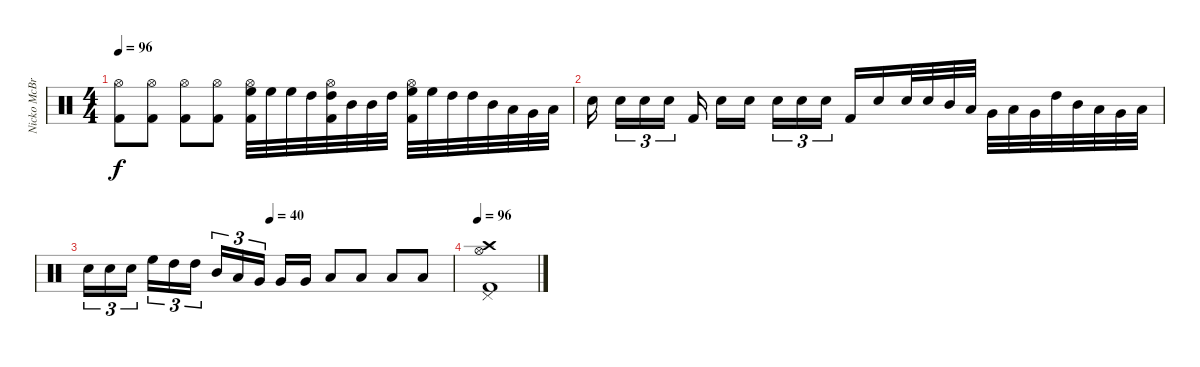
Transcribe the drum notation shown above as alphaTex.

\track ("Nicko McBrain" "Nicko McBr") {instrument percussion}
\staff {score}
\articulation defaults
\ts (4 4)
\tempo 96
\clef neutral
\ks c
("Kick (hit) 2" "Hi-Hat (open)").8{dy f} ("Kick (hit) 2" "Hi-Hat (open)").8 ("Kick (hit) 2" "Hi-Hat (open)").8 ("Kick (hit) 2" "Hi-Hat (open)").8 ("High Floor Tom (hit)" "Kick (hit) 2" "Hi-Hat (open)").32 "High Floor Tom (hit)".32 "High Floor Tom (hit)".32 "High Tom (hit)".32 ("High Tom (hit)" "Kick (hit) 2" "Hi-Hat (open)").32 "Mid Tom (hit)".32 "Mid Tom (hit)".32 "High Tom (hit)".32 ("High Floor Tom (hit)" "Kick (hit) 2" "Hi-Hat (open)").32 "High Floor Tom (hit)".32 "High Tom (hit)".32 "High Tom (hit)".32 "Mid Tom (hit)".32 "Low Tom (hit)".32 "Very Low Tom (hit)".32 "Low Floor Tom (hit)".32 |
"Snare (hit) 2".16{beam splitsecondary} "Snare (hit) 2".16{tu (3 2)} "Snare (hit) 2".16{tu (3 2)} "Snare (hit) 2".16{tu (3 2) beam splitsecondary} "Kick (hit) 2".16 "Snare (hit) 2".16 "Snare (hit) 2".16{beam splitsecondary} "Snare (hit) 2".16{tu (3 2)} "Snare (hit) 2".16{tu (3 2)} "Snare (hit) 2".16{tu (3 2)} "Kick (hit) 2".16 "Snare (hit) 2".16 "Snare (hit) 2".32 "Snare (hit) 2".32 "Mid Tom (hit)".32 "Low Tom (hit)".32 "Very Low Tom (hit)".32 "Low Floor Tom (hit)".32 "Very Low Tom (hit)".32 "High Tom (hit)".32 "Mid Tom (hit)".32 "Low Tom (hit)".32 "Very Low Tom (hit)".32 "Low Floor Tom (hit)".32 |
\tempo (40 0.5)
"Snare (hit) 2".16{tu (3 2)} "Snare (hit) 2".16{tu (3 2)} "Snare (hit) 2".16{tu (3 2) beam splitsecondary} "High Floor Tom (hit)".16{tu (3 2)} "High Tom (hit)".16{tu (3 2)} "High Tom (hit)".16{tu (3 2)} "Mid Tom (hit)".16{tu (3 2)} "Low Tom (hit)".16{tu (3 2)} "Very Low Tom (hit)".16{tu (3 2) beam splitsecondary} "Very Low Tom (hit)".16 "Very Low Tom (hit)".16 "Low Floor Tom (hit)".8 "Low Floor Tom (hit)".8 "Low Floor Tom (hit)".8 "Low Floor Tom (hit)".8 |
\tempo 96
("Kick (hit) 2" "Pedal Hi-Hat (hit)" "Hi-Hat (open)" "Crash high (hit)").1
